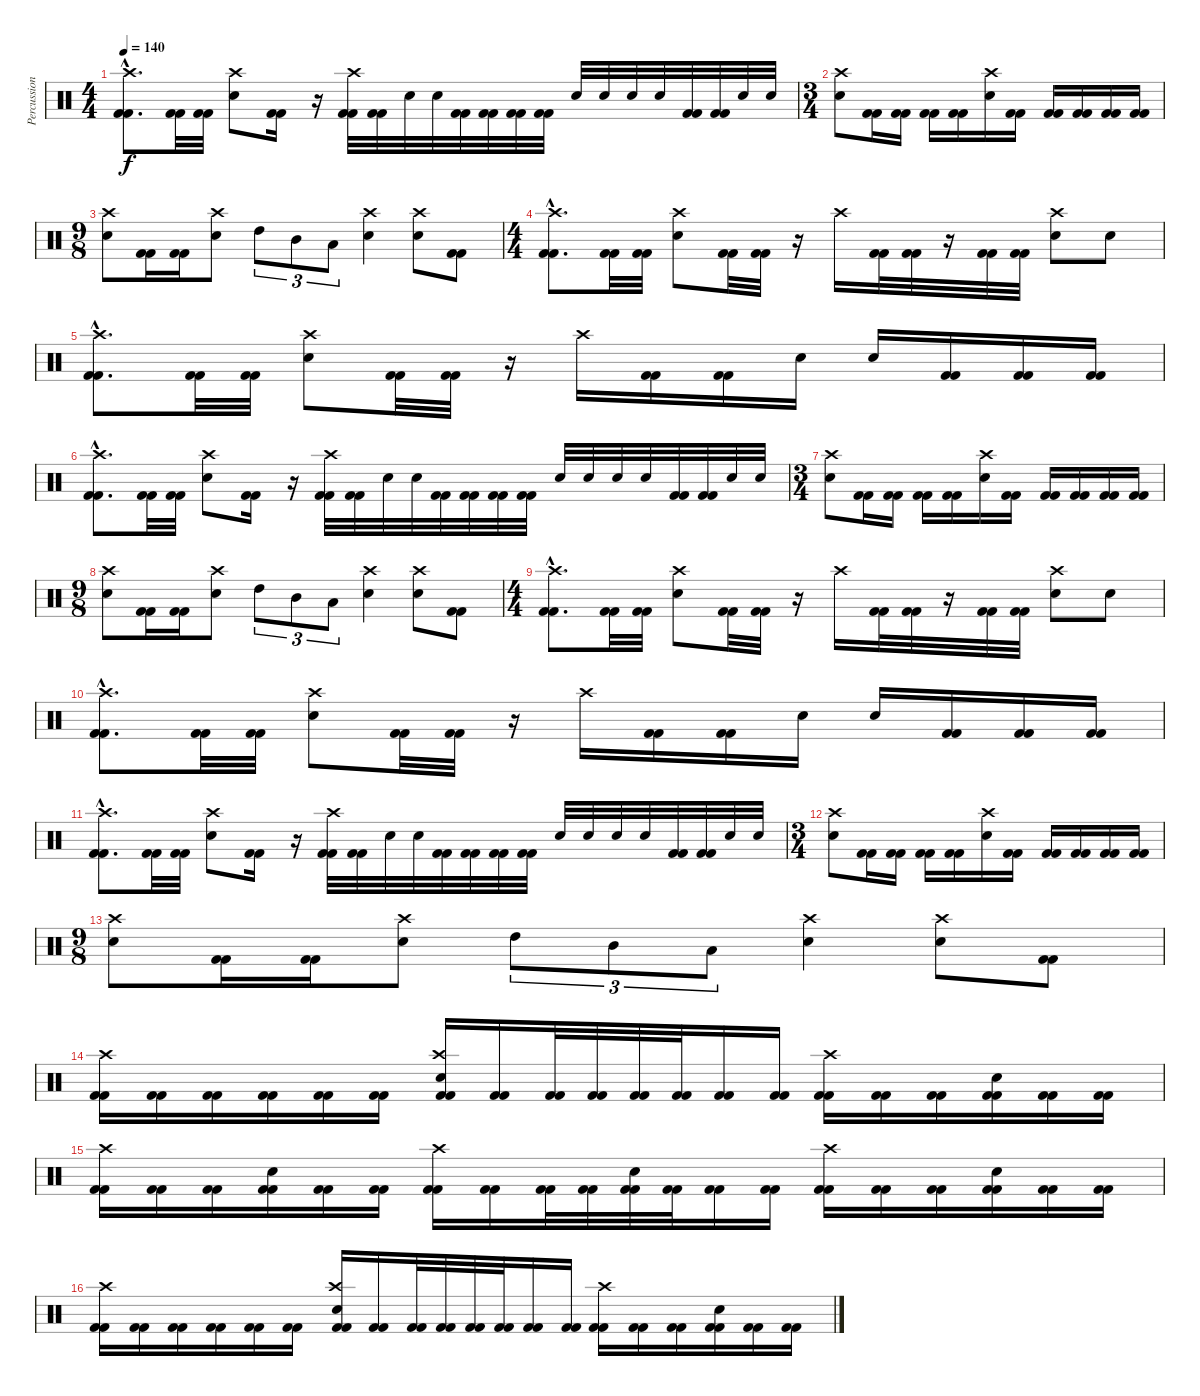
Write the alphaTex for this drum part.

\track ("Percussions" "Percussion") {instrument percussion}
\staff {score}
\articulation defaults
\ts (4 4)
\tempo 140
\clef neutral
\ks c
("Kick (hit) 2"{hac} "Kick (hit) 2"{hac} "Crash high (hit)"{hac}).8{d dy f} ("Kick (hit) 2" "Kick (hit) 2").32 ("Kick (hit) 2" "Kick (hit) 2").32 ("Electric Snare (hit)" "Crash high (hit)").8 ("Kick (hit) 2" "Kick (hit) 2").16 r.16 ("Kick (hit) 2" "Kick (hit) 2" "Crash high (hit)").32 ("Kick (hit) 2" "Kick (hit) 2").32 "Electric Snare (hit)".32 "Electric Snare (hit)".32 ("Kick (hit) 2" "Kick (hit) 2").32 ("Kick (hit) 2" "Kick (hit) 2").32 ("Kick (hit) 2" "Kick (hit) 2").32 ("Kick (hit) 2" "Kick (hit) 2").32 "Electric Snare (hit)".32 "Electric Snare (hit)".32 "Electric Snare (hit)".32 "Electric Snare (hit)".32 ("Kick (hit) 2" "Kick (hit) 2").32 ("Kick (hit) 2" "Kick (hit) 2").32 "Electric Snare (hit)".32 "Electric Snare (hit)".32 |
\ts (3 4)
("Electric Snare (hit)" "Crash high (hit)").8 ("Kick (hit) 2" "Kick (hit) 2").16 ("Kick (hit) 2" "Kick (hit) 2").16 ("Kick (hit) 2" "Kick (hit) 2").16 ("Kick (hit) 2" "Kick (hit) 2").16 ("Electric Snare (hit)" "Crash high (hit)").16 ("Kick (hit) 2" "Kick (hit) 2").16 ("Kick (hit) 2" "Kick (hit) 2").16 ("Kick (hit) 2" "Kick (hit) 2").16 ("Kick (hit) 2" "Kick (hit) 2").16 ("Kick (hit) 2" "Kick (hit) 2").16 |
\ts (9 8)
("Electric Snare (hit)" "Crash high (hit)").8 ("Kick (hit) 2" "Kick (hit) 2").16 ("Kick (hit) 2" "Kick (hit) 2").16 ("Electric Snare (hit)" "Crash high (hit)").8 "High Tom (hit)".8{tu (3 2)} "Mid Tom (hit)".8{tu (3 2)} "Low Tom (hit)".8{tu (3 2)} ("Electric Snare (hit)" "Crash high (hit)").4 ("Electric Snare (hit)" "Crash high (hit)").8 ("Kick (hit) 2" "Kick (hit) 2").8 |
\ts (4 4)
("Kick (hit) 2"{hac} "Kick (hit) 2"{hac} "Crash high (hit)"{hac}).8{d} ("Kick (hit) 2" "Kick (hit) 2").32 ("Kick (hit) 2" "Kick (hit) 2").32 ("Electric Snare (hit)" "Crash high (hit)").8 ("Kick (hit) 2" "Kick (hit) 2").32 ("Kick (hit) 2" "Kick (hit) 2").32 r.16 "Crash high (hit)".16 ("Kick (hit) 2" "Kick (hit) 2").32 ("Kick (hit) 2" "Kick (hit) 2").32 r.16 ("Kick (hit) 2" "Kick (hit) 2").32 ("Kick (hit) 2" "Kick (hit) 2").32 ("Electric Snare (hit)" "Crash high (hit)").8 "Electric Snare (hit)".8 |
("Kick (hit) 2"{hac} "Kick (hit) 2"{hac} "Crash high (hit)"{hac}).8{d} ("Kick (hit) 2" "Kick (hit) 2").32 ("Kick (hit) 2" "Kick (hit) 2").32 ("Electric Snare (hit)" "Crash high (hit)").8 ("Kick (hit) 2" "Kick (hit) 2").32 ("Kick (hit) 2" "Kick (hit) 2").32 r.16 "Crash high (hit)".16 ("Kick (hit) 2" "Kick (hit) 2").16 ("Kick (hit) 2" "Kick (hit) 2").16 "Electric Snare (hit)".16 "Electric Snare (hit)".16 ("Kick (hit) 2" "Kick (hit) 2").16 ("Kick (hit) 2" "Kick (hit) 2").16 ("Kick (hit) 2" "Kick (hit) 2").16 |
("Kick (hit) 2"{hac} "Kick (hit) 2"{hac} "Crash high (hit)"{hac}).8{d} ("Kick (hit) 2" "Kick (hit) 2").32 ("Kick (hit) 2" "Kick (hit) 2").32 ("Electric Snare (hit)" "Crash high (hit)").8 ("Kick (hit) 2" "Kick (hit) 2").16 r.16 ("Kick (hit) 2" "Kick (hit) 2" "Crash high (hit)").32 ("Kick (hit) 2" "Kick (hit) 2").32 "Electric Snare (hit)".32 "Electric Snare (hit)".32 ("Kick (hit) 2" "Kick (hit) 2").32 ("Kick (hit) 2" "Kick (hit) 2").32 ("Kick (hit) 2" "Kick (hit) 2").32 ("Kick (hit) 2" "Kick (hit) 2").32 "Electric Snare (hit)".32 "Electric Snare (hit)".32 "Electric Snare (hit)".32 "Electric Snare (hit)".32 ("Kick (hit) 2" "Kick (hit) 2").32 ("Kick (hit) 2" "Kick (hit) 2").32 "Electric Snare (hit)".32 "Electric Snare (hit)".32 |
\ts (3 4)
("Electric Snare (hit)" "Crash high (hit)").8 ("Kick (hit) 2" "Kick (hit) 2").16 ("Kick (hit) 2" "Kick (hit) 2").16 ("Kick (hit) 2" "Kick (hit) 2").16 ("Kick (hit) 2" "Kick (hit) 2").16 ("Electric Snare (hit)" "Crash high (hit)").16 ("Kick (hit) 2" "Kick (hit) 2").16 ("Kick (hit) 2" "Kick (hit) 2").16 ("Kick (hit) 2" "Kick (hit) 2").16 ("Kick (hit) 2" "Kick (hit) 2").16 ("Kick (hit) 2" "Kick (hit) 2").16 |
\ts (9 8)
("Electric Snare (hit)" "Crash high (hit)").8 ("Kick (hit) 2" "Kick (hit) 2").16 ("Kick (hit) 2" "Kick (hit) 2").16 ("Electric Snare (hit)" "Crash high (hit)").8 "High Tom (hit)".8{tu (3 2)} "Mid Tom (hit)".8{tu (3 2)} "Low Tom (hit)".8{tu (3 2)} ("Electric Snare (hit)" "Crash high (hit)").4 ("Electric Snare (hit)" "Crash high (hit)").8 ("Kick (hit) 2" "Kick (hit) 2").8 |
\ts (4 4)
("Kick (hit) 2"{hac} "Kick (hit) 2"{hac} "Crash high (hit)"{hac}).8{d} ("Kick (hit) 2" "Kick (hit) 2").32 ("Kick (hit) 2" "Kick (hit) 2").32 ("Electric Snare (hit)" "Crash high (hit)").8 ("Kick (hit) 2" "Kick (hit) 2").32 ("Kick (hit) 2" "Kick (hit) 2").32 r.16 "Crash high (hit)".16 ("Kick (hit) 2" "Kick (hit) 2").32 ("Kick (hit) 2" "Kick (hit) 2").32 r.16 ("Kick (hit) 2" "Kick (hit) 2").32 ("Kick (hit) 2" "Kick (hit) 2").32 ("Electric Snare (hit)" "Crash high (hit)").8 "Electric Snare (hit)".8 |
("Kick (hit) 2"{hac} "Kick (hit) 2"{hac} "Crash high (hit)"{hac}).8{d} ("Kick (hit) 2" "Kick (hit) 2").32 ("Kick (hit) 2" "Kick (hit) 2").32 ("Electric Snare (hit)" "Crash high (hit)").8 ("Kick (hit) 2" "Kick (hit) 2").32 ("Kick (hit) 2" "Kick (hit) 2").32 r.16 "Crash high (hit)".16 ("Kick (hit) 2" "Kick (hit) 2").16 ("Kick (hit) 2" "Kick (hit) 2").16 "Electric Snare (hit)".16 "Electric Snare (hit)".16 ("Kick (hit) 2" "Kick (hit) 2").16 ("Kick (hit) 2" "Kick (hit) 2").16 ("Kick (hit) 2" "Kick (hit) 2").16 |
("Kick (hit) 2"{hac} "Kick (hit) 2"{hac} "Crash high (hit)"{hac}).8{d} ("Kick (hit) 2" "Kick (hit) 2").32 ("Kick (hit) 2" "Kick (hit) 2").32 ("Electric Snare (hit)" "Crash high (hit)").8 ("Kick (hit) 2" "Kick (hit) 2").16 r.16 ("Kick (hit) 2" "Kick (hit) 2" "Crash high (hit)").32 ("Kick (hit) 2" "Kick (hit) 2").32 "Electric Snare (hit)".32 "Electric Snare (hit)".32 ("Kick (hit) 2" "Kick (hit) 2").32 ("Kick (hit) 2" "Kick (hit) 2").32 ("Kick (hit) 2" "Kick (hit) 2").32 ("Kick (hit) 2" "Kick (hit) 2").32 "Electric Snare (hit)".32 "Electric Snare (hit)".32 "Electric Snare (hit)".32 "Electric Snare (hit)".32 ("Kick (hit) 2" "Kick (hit) 2").32 ("Kick (hit) 2" "Kick (hit) 2").32 "Electric Snare (hit)".32 "Electric Snare (hit)".32 |
\ts (3 4)
("Electric Snare (hit)" "Crash high (hit)").8 ("Kick (hit) 2" "Kick (hit) 2").16 ("Kick (hit) 2" "Kick (hit) 2").16 ("Kick (hit) 2" "Kick (hit) 2").16 ("Kick (hit) 2" "Kick (hit) 2").16 ("Electric Snare (hit)" "Crash high (hit)").16 ("Kick (hit) 2" "Kick (hit) 2").16 ("Kick (hit) 2" "Kick (hit) 2").16 ("Kick (hit) 2" "Kick (hit) 2").16 ("Kick (hit) 2" "Kick (hit) 2").16 ("Kick (hit) 2" "Kick (hit) 2").16 |
\ts (9 8)
("Electric Snare (hit)" "Crash high (hit)").8 ("Kick (hit) 2" "Kick (hit) 2").16 ("Kick (hit) 2" "Kick (hit) 2").16 ("Electric Snare (hit)" "Crash high (hit)").8 "High Tom (hit)".8{tu (3 2)} "Mid Tom (hit)".8{tu (3 2)} "Low Tom (hit)".8{tu (3 2)} ("Electric Snare (hit)" "Crash high (hit)").4 ("Electric Snare (hit)" "Crash high (hit)").8 ("Kick (hit) 2" "Kick (hit) 2").8 |
("Kick (hit) 2" "Kick (hit) 2" "Crash high (hit)").16 ("Kick (hit) 2" "Kick (hit) 2").16 ("Kick (hit) 2" "Kick (hit) 2").16 ("Kick (hit) 2" "Kick (hit) 2").16 ("Kick (hit) 2" "Kick (hit) 2").16 ("Kick (hit) 2" "Kick (hit) 2").16 ("Kick (hit) 2" "Kick (hit) 2" "Electric Snare (hit)" "Crash high (hit)").16 ("Kick (hit) 2" "Kick (hit) 2").16 ("Kick (hit) 2" "Kick (hit) 2").32 ("Kick (hit) 2" "Kick (hit) 2").32 ("Kick (hit) 2" "Kick (hit) 2").32 ("Kick (hit) 2" "Kick (hit) 2").32 ("Kick (hit) 2" "Kick (hit) 2").16 ("Kick (hit) 2" "Kick (hit) 2").16 ("Kick (hit) 2" "Kick (hit) 2" "Crash high (hit)").16 ("Kick (hit) 2" "Kick (hit) 2").16 ("Kick (hit) 2" "Kick (hit) 2").16 ("Kick (hit) 2" "Kick (hit) 2" "Electric Snare (hit)").16 ("Kick (hit) 2" "Kick (hit) 2").16 ("Kick (hit) 2" "Kick (hit) 2").16 |
("Kick (hit) 2" "Kick (hit) 2" "Crash high (hit)").16 ("Kick (hit) 2" "Kick (hit) 2").16 ("Kick (hit) 2" "Kick (hit) 2").16 ("Kick (hit) 2" "Kick (hit) 2" "Electric Snare (hit)").16 ("Kick (hit) 2" "Kick (hit) 2").16 ("Kick (hit) 2" "Kick (hit) 2").16 ("Kick (hit) 2" "Kick (hit) 2" "Crash high (hit)").16 ("Kick (hit) 2" "Kick (hit) 2").16 ("Kick (hit) 2" "Kick (hit) 2").32 ("Kick (hit) 2" "Kick (hit) 2").32 ("Kick (hit) 2" "Kick (hit) 2" "Electric Snare (hit)").32 ("Kick (hit) 2" "Kick (hit) 2").32 ("Kick (hit) 2" "Kick (hit) 2").16 ("Kick (hit) 2" "Kick (hit) 2").16 ("Kick (hit) 2" "Kick (hit) 2" "Crash high (hit)").16 ("Kick (hit) 2" "Kick (hit) 2").16 ("Kick (hit) 2" "Kick (hit) 2").16 ("Kick (hit) 2" "Kick (hit) 2" "Electric Snare (hit)").16 ("Kick (hit) 2" "Kick (hit) 2").16 ("Kick (hit) 2" "Kick (hit) 2").16 |
("Kick (hit) 2" "Kick (hit) 2" "Crash high (hit)").16 ("Kick (hit) 2" "Kick (hit) 2").16 ("Kick (hit) 2" "Kick (hit) 2").16 ("Kick (hit) 2" "Kick (hit) 2").16 ("Kick (hit) 2" "Kick (hit) 2").16 ("Kick (hit) 2" "Kick (hit) 2").16 ("Kick (hit) 2" "Kick (hit) 2" "Electric Snare (hit)" "Crash high (hit)").16 ("Kick (hit) 2" "Kick (hit) 2").16 ("Kick (hit) 2" "Kick (hit) 2").32 ("Kick (hit) 2" "Kick (hit) 2").32 ("Kick (hit) 2" "Kick (hit) 2").32 ("Kick (hit) 2" "Kick (hit) 2").32 ("Kick (hit) 2" "Kick (hit) 2").16 ("Kick (hit) 2" "Kick (hit) 2").16 ("Kick (hit) 2" "Kick (hit) 2" "Crash high (hit)").16 ("Kick (hit) 2" "Kick (hit) 2").16 ("Kick (hit) 2" "Kick (hit) 2").16 ("Kick (hit) 2" "Kick (hit) 2" "Electric Snare (hit)").16 ("Kick (hit) 2" "Kick (hit) 2").16 ("Kick (hit) 2" "Kick (hit) 2").16
